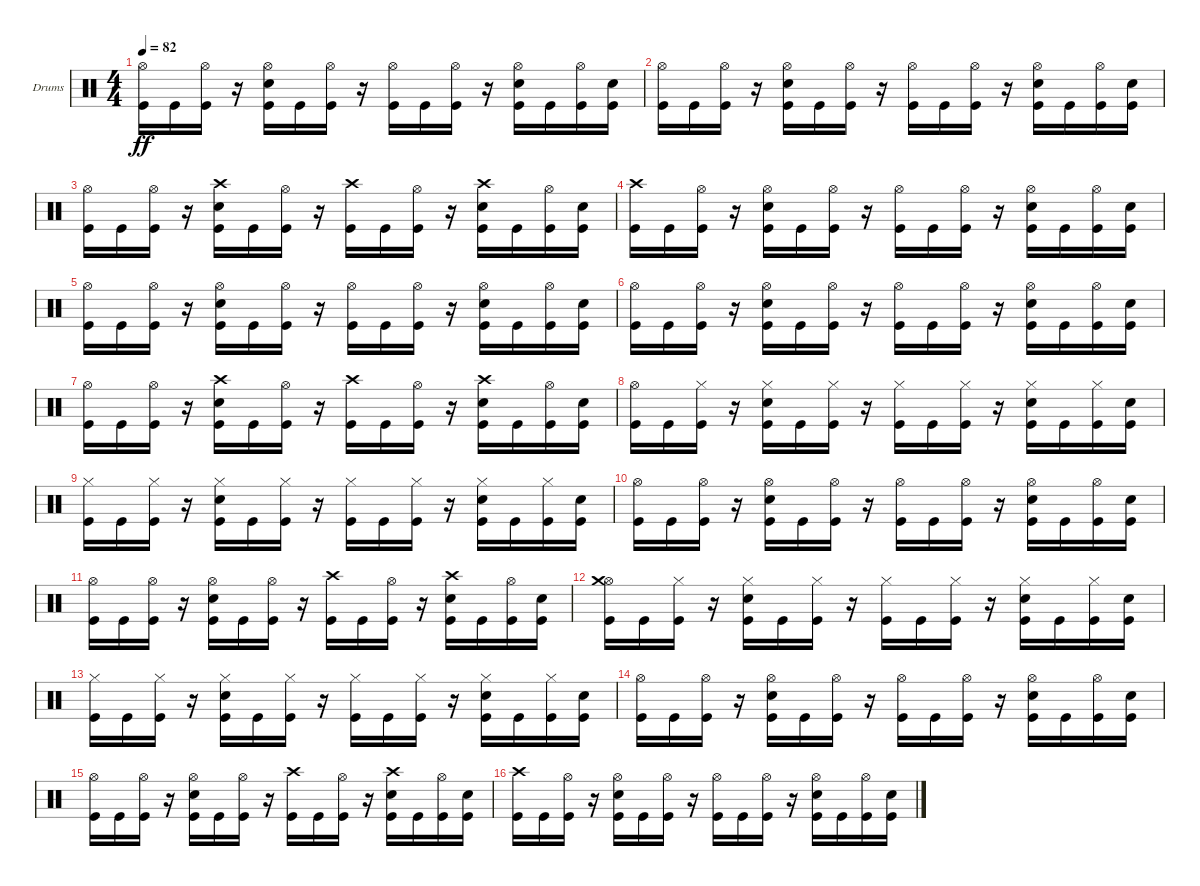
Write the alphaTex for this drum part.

\bracketExtendMode groupsimilarinstruments
\firstSystemTrackNameOrientation horizontal
\otherSystemsTrackNameOrientation horizontal
\track ("Kaleb - Drums" "Drums") {instrument percussion}
\staff {score}
\articulation defaults
\ts (4 4)
\tempo 82
\clef neutral
\ks c
("Kick (hit)" "Hi-Hat (open)").16{dy ff} "Kick (hit)".16 ("Kick (hit)" "Hi-Hat (open)").16 r.16 ("Kick (hit)" "Snare (hit) 2" "Hi-Hat (open)").16 "Kick (hit)".16 ("Kick (hit)" "Hi-Hat (open)").16 r.16 ("Kick (hit)" "Hi-Hat (open)").16 "Kick (hit)".16 ("Kick (hit)" "Hi-Hat (open)").16 r.16 ("Kick (hit)" "Snare (hit) 2" "Hi-Hat (open)").16 "Kick (hit)".16 ("Kick (hit)" "Hi-Hat (open)").16 ("Kick (hit)" "Snare (hit) 2").16 |
("Kick (hit)" "Hi-Hat (open)").16 "Kick (hit)".16 ("Kick (hit)" "Hi-Hat (open)").16 r.16 ("Kick (hit)" "Snare (hit) 2" "Hi-Hat (open)").16 "Kick (hit)".16 ("Kick (hit)" "Hi-Hat (open)").16 r.16 ("Kick (hit)" "Hi-Hat (open)").16 "Kick (hit)".16 ("Kick (hit)" "Hi-Hat (open)").16 r.16 ("Kick (hit)" "Snare (hit) 2" "Hi-Hat (open)").16 "Kick (hit)".16 ("Kick (hit)" "Hi-Hat (open)").16 ("Kick (hit)" "Snare (hit) 2").16 |
("Kick (hit)" "Hi-Hat (open)").16 "Kick (hit)".16 ("Kick (hit)" "Hi-Hat (open)").16 r.16 ("Kick (hit)" "Snare (hit) 2" "Crash high (hit)").16 "Kick (hit)".16 ("Kick (hit)" "Hi-Hat (open)").16 r.16 ("Kick (hit)" "Crash high (hit)").16 "Kick (hit)".16 ("Kick (hit)" "Hi-Hat (open)").16 r.16 ("Kick (hit)" "Snare (hit) 2" "Crash high (hit)").16 "Kick (hit)".16 ("Kick (hit)" "Hi-Hat (open)").16 ("Kick (hit)" "Snare (hit) 2").16 |
("Kick (hit)" "Crash high (hit)").16 "Kick (hit)".16 ("Kick (hit)" "Hi-Hat (open)").16 r.16 ("Kick (hit)" "Snare (hit) 2" "Hi-Hat (open)").16 "Kick (hit)".16 ("Kick (hit)" "Hi-Hat (open)").16 r.16 ("Kick (hit)" "Hi-Hat (open)").16 "Kick (hit)".16 ("Kick (hit)" "Hi-Hat (open)").16 r.16 ("Kick (hit)" "Snare (hit) 2" "Hi-Hat (open)").16 "Kick (hit)".16 ("Kick (hit)" "Hi-Hat (open)").16 ("Kick (hit)" "Snare (hit) 2").16 |
("Kick (hit)" "Hi-Hat (open)").16 "Kick (hit)".16 ("Kick (hit)" "Hi-Hat (open)").16 r.16 ("Kick (hit)" "Snare (hit) 2" "Hi-Hat (open)").16 "Kick (hit)".16 ("Kick (hit)" "Hi-Hat (open)").16 r.16 ("Kick (hit)" "Hi-Hat (open)").16 "Kick (hit)".16 ("Kick (hit)" "Hi-Hat (open)").16 r.16 ("Kick (hit)" "Snare (hit) 2" "Hi-Hat (open)").16 "Kick (hit)".16 ("Kick (hit)" "Hi-Hat (open)").16 ("Kick (hit)" "Snare (hit) 2").16 |
("Kick (hit)" "Hi-Hat (open)").16 "Kick (hit)".16 ("Kick (hit)" "Hi-Hat (open)").16 r.16 ("Kick (hit)" "Snare (hit) 2" "Hi-Hat (open)").16 "Kick (hit)".16 ("Kick (hit)" "Hi-Hat (open)").16 r.16 ("Kick (hit)" "Hi-Hat (open)").16 "Kick (hit)".16 ("Kick (hit)" "Hi-Hat (open)").16 r.16 ("Kick (hit)" "Snare (hit) 2" "Hi-Hat (open)").16 "Kick (hit)".16 ("Kick (hit)" "Hi-Hat (open)").16 ("Kick (hit)" "Snare (hit) 2").16 |
("Kick (hit)" "Hi-Hat (open)").16 "Kick (hit)".16 ("Kick (hit)" "Hi-Hat (open)").16 r.16 ("Kick (hit)" "Snare (hit) 2" "Crash high (hit)").16 "Kick (hit)".16 ("Kick (hit)" "Hi-Hat (open)").16 r.16 ("Kick (hit)" "Crash high (hit)").16 "Kick (hit)".16 ("Kick (hit)" "Hi-Hat (open)").16 r.16 ("Kick (hit)" "Snare (hit) 2" "Crash high (hit)").16 "Kick (hit)".16 ("Kick (hit)" "Hi-Hat (open)").16 ("Kick (hit)" "Snare (hit) 2").16 |
("Kick (hit)" "Hi-Hat (open)").16 "Kick (hit)".16 ("Kick (hit)" "Hi-Hat (closed)").16 r.16 ("Kick (hit)" "Snare (hit) 2" "Hi-Hat (closed)").16 "Kick (hit)".16 ("Kick (hit)" "Hi-Hat (closed)").16 r.16 ("Kick (hit)" "Hi-Hat (closed)").16 "Kick (hit)".16 ("Kick (hit)" "Hi-Hat (closed)").16 r.16 ("Kick (hit)" "Snare (hit) 2" "Hi-Hat (closed)").16 "Kick (hit)".16 ("Kick (hit)" "Hi-Hat (closed)").16 ("Kick (hit)" "Snare (hit) 2").16 |
("Kick (hit)" "Hi-Hat (closed)").16 "Kick (hit)".16 ("Kick (hit)" "Hi-Hat (closed)").16 r.16 ("Kick (hit)" "Snare (hit) 2" "Hi-Hat (closed)").16 "Kick (hit)".16 ("Kick (hit)" "Hi-Hat (closed)").16 r.16 ("Kick (hit)" "Hi-Hat (closed)").16 "Kick (hit)".16 ("Kick (hit)" "Hi-Hat (closed)").16 r.16 ("Kick (hit)" "Snare (hit) 2" "Hi-Hat (closed)").16 "Kick (hit)".16 ("Kick (hit)" "Hi-Hat (closed)").16 ("Kick (hit)" "Snare (hit) 2").16 |
("Kick (hit)" "Hi-Hat (open)").16 "Kick (hit)".16 ("Kick (hit)" "Hi-Hat (open)").16 r.16 ("Kick (hit)" "Snare (hit) 2" "Hi-Hat (open)").16 "Kick (hit)".16 ("Kick (hit)" "Hi-Hat (open)").16 r.16 ("Kick (hit)" "Hi-Hat (open)").16 "Kick (hit)".16 ("Kick (hit)" "Hi-Hat (open)").16 r.16 ("Kick (hit)" "Snare (hit) 2" "Hi-Hat (open)").16 "Kick (hit)".16 ("Kick (hit)" "Hi-Hat (open)").16 ("Kick (hit)" "Snare (hit) 2").16 |
("Kick (hit)" "Hi-Hat (open)").16 "Kick (hit)".16 ("Kick (hit)" "Hi-Hat (open)").16 r.16 ("Kick (hit)" "Snare (hit) 2" "Hi-Hat (open)").16 "Kick (hit)".16 ("Kick (hit)" "Hi-Hat (open)").16 r.16 ("Kick (hit)" "Crash high (hit)").16 "Kick (hit)".16 ("Kick (hit)" "Hi-Hat (open)").16 r.16 ("Kick (hit)" "Snare (hit) 2" "Crash high (hit)").16 "Kick (hit)".16 ("Kick (hit)" "Hi-Hat (open)").16 ("Kick (hit)" "Snare (hit) 2").16 |
("Kick (hit)" "Hi-Hat (open)" "Crash medium (hit)").16 "Kick (hit)".16 ("Kick (hit)" "Hi-Hat (closed)").16 r.16 ("Kick (hit)" "Snare (hit) 2" "Hi-Hat (closed)").16 "Kick (hit)".16 ("Kick (hit)" "Hi-Hat (closed)").16 r.16 ("Kick (hit)" "Hi-Hat (closed)").16 "Kick (hit)".16 ("Kick (hit)" "Hi-Hat (closed)").16 r.16 ("Kick (hit)" "Snare (hit) 2" "Hi-Hat (closed)").16 "Kick (hit)".16 ("Kick (hit)" "Hi-Hat (closed)").16 ("Kick (hit)" "Snare (hit) 2").16 |
("Kick (hit)" "Hi-Hat (closed)").16 "Kick (hit)".16 ("Kick (hit)" "Hi-Hat (closed)").16 r.16 ("Kick (hit)" "Snare (hit) 2" "Hi-Hat (closed)").16 "Kick (hit)".16 ("Kick (hit)" "Hi-Hat (closed)").16 r.16 ("Kick (hit)" "Hi-Hat (closed)").16 "Kick (hit)".16 ("Kick (hit)" "Hi-Hat (closed)").16 r.16 ("Kick (hit)" "Snare (hit) 2" "Hi-Hat (closed)").16 "Kick (hit)".16 ("Kick (hit)" "Hi-Hat (closed)").16 ("Kick (hit)" "Snare (hit) 2").16 |
("Kick (hit)" "Hi-Hat (open)").16 "Kick (hit)".16 ("Kick (hit)" "Hi-Hat (open)").16 r.16 ("Kick (hit)" "Snare (hit) 2" "Hi-Hat (open)").16 "Kick (hit)".16 ("Kick (hit)" "Hi-Hat (open)").16 r.16 ("Kick (hit)" "Hi-Hat (open)").16 "Kick (hit)".16 ("Kick (hit)" "Hi-Hat (open)").16 r.16 ("Kick (hit)" "Snare (hit) 2" "Hi-Hat (open)").16 "Kick (hit)".16 ("Kick (hit)" "Hi-Hat (open)").16 ("Kick (hit)" "Snare (hit) 2").16 |
("Kick (hit)" "Hi-Hat (open)").16 "Kick (hit)".16 ("Kick (hit)" "Hi-Hat (open)").16 r.16 ("Kick (hit)" "Snare (hit) 2" "Hi-Hat (open)").16 "Kick (hit)".16 ("Kick (hit)" "Hi-Hat (open)").16 r.16 ("Kick (hit)" "Crash high (hit)").16 "Kick (hit)".16 ("Kick (hit)" "Hi-Hat (open)").16 r.16 ("Kick (hit)" "Snare (hit) 2" "Crash high (hit)").16 "Kick (hit)".16 ("Kick (hit)" "Hi-Hat (open)").16 ("Kick (hit)" "Snare (hit) 2").16 |
("Kick (hit)" "Crash high (hit)").16 "Kick (hit)".16 ("Kick (hit)" "Hi-Hat (open)").16 r.16 ("Kick (hit)" "Snare (hit) 2" "Hi-Hat (open)").16 "Kick (hit)".16 ("Kick (hit)" "Hi-Hat (open)").16 r.16 ("Kick (hit)" "Hi-Hat (open)").16 "Kick (hit)".16 ("Kick (hit)" "Hi-Hat (open)").16 r.16 ("Kick (hit)" "Snare (hit) 2" "Hi-Hat (open)").16 "Kick (hit)".16 ("Kick (hit)" "Hi-Hat (open)").16 ("Kick (hit)" "Snare (hit) 2").16
